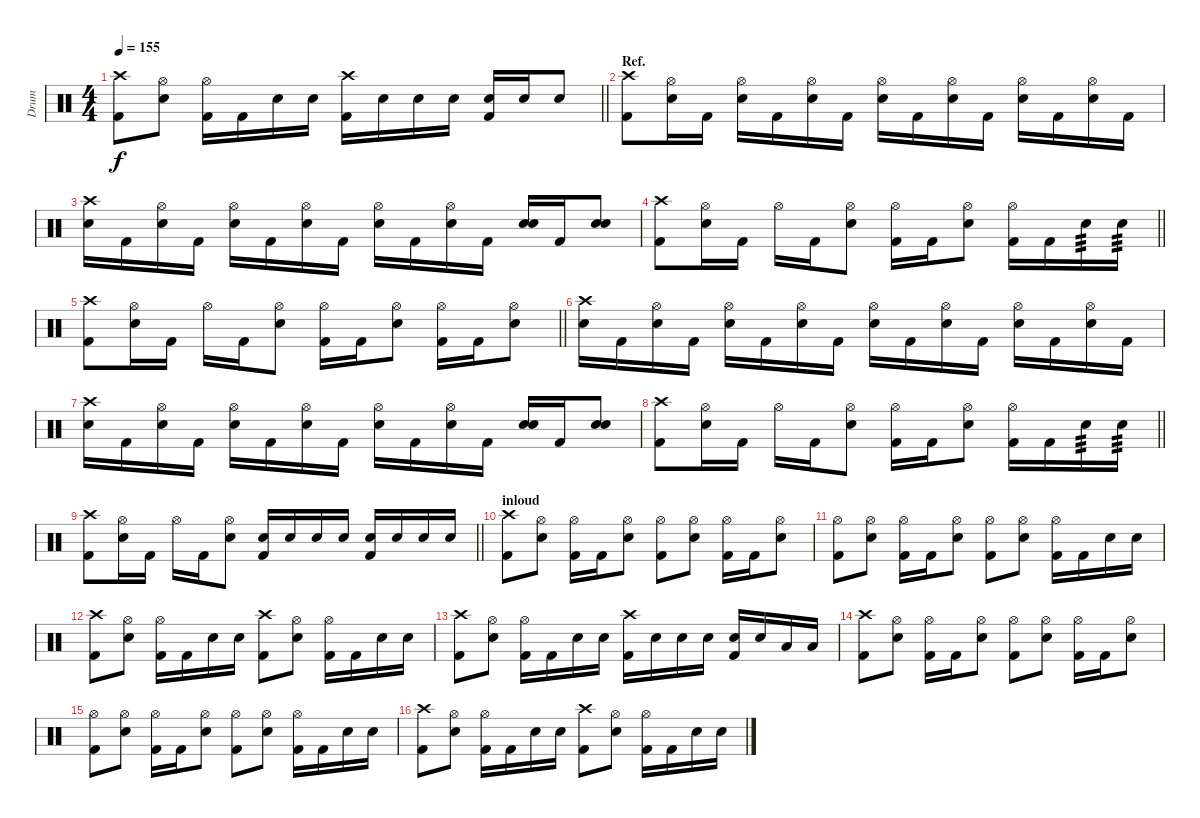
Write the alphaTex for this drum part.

\track ("Drum" "Drum") {solo instrument percussion}
\staff {score}
\articulation defaults
\ts (4 4)
\tempo 155
\clef neutral
\barLineRight lightlight
\ks c
("Crash high (hit)" "Kick (hit) 2").8{dy f} ("Hi-Hat (open)" "Electric Snare (hit)").8 ("Kick (hit) 2" "Hi-Hat (open)").16 "Kick (hit) 2".16 "Electric Snare (hit)".16 "Electric Snare (hit)".16 ("Crash high (hit)" "Kick (hit) 2").16 "Electric Snare (hit)".16 "Electric Snare (hit)".16 "Electric Snare (hit)".16 ("Electric Snare (hit)" "Kick (hit) 2").16 "Electric Snare (hit)".16 "Electric Snare (hit)".8 |
\section ("" "Ref.")
("Kick (hit) 2" "Crash high (hit)").8 ("Hi-Hat (open)" "Electric Snare (hit)").16 "Kick (hit) 2".16 ("Electric Snare (hit)" "Hi-Hat (open)").16 "Kick (hit) 2".16 ("Hi-Hat (open)" "Electric Snare (hit)").16 "Kick (hit) 2".16 ("Electric Snare (hit)" "Hi-Hat (open)").16 "Kick (hit) 2".16 ("Hi-Hat (open)" "Electric Snare (hit)").16 "Kick (hit) 2".16 ("Electric Snare (hit)" "Hi-Hat (open)").16 "Kick (hit) 2".16 ("Hi-Hat (open)" "Electric Snare (hit)").16 "Kick (hit) 2".16 |
("Electric Snare (hit)" "Crash high (hit)").16 "Kick (hit) 2".16 ("Hi-Hat (open)" "Electric Snare (hit)").16 "Kick (hit) 2".16 ("Electric Snare (hit)" "Hi-Hat (open)").16 "Kick (hit) 2".16 ("Hi-Hat (open)" "Electric Snare (hit)").16 "Kick (hit) 2".16 ("Electric Snare (hit)" "Hi-Hat (open)").16 "Kick (hit) 2".16 ("Hi-Hat (open)" "Electric Snare (hit)").16 "Kick (hit) 2".16 ("Electric Snare (hit)" "Electric Snare (hit)").16 "Kick (hit) 2".16 ("Electric Snare (hit)" "Electric Snare (hit)").8 |
\barLineRight lightlight
("Crash high (hit)" "Kick (hit) 2").8 ("Hi-Hat (open)" "Electric Snare (hit)").16 "Kick (hit) 2".16 "Hi-Hat (open)".16 "Kick (hit) 2".16 ("Hi-Hat (open)" "Electric Snare (hit)").8 ("Kick (hit) 2" "Hi-Hat (open)").16 "Kick (hit) 2".16 ("Hi-Hat (open)" "Electric Snare (hit)").8 ("Kick (hit) 2" "Hi-Hat (open)").16 "Kick (hit) 2".16 "Electric Snare (hit)".16{tp 3} "Electric Snare (hit)".16{tp 3} |
\barLineRight lightlight
("Crash high (hit)" "Kick (hit) 2").8 ("Hi-Hat (open)" "Electric Snare (hit)").16 "Kick (hit) 2".16 "Hi-Hat (open)".16 "Kick (hit) 2".16 ("Hi-Hat (open)" "Electric Snare (hit)").8 ("Kick (hit) 2" "Hi-Hat (open)").16 "Kick (hit) 2".16 ("Hi-Hat (open)" "Electric Snare (hit)").8 ("Kick (hit) 2" "Hi-Hat (open)").16 "Kick (hit) 2".16 ("Hi-Hat (open)" "Electric Snare (hit)").8 |
("Crash high (hit)" "Electric Snare (hit)").16 "Kick (hit) 2".16 ("Hi-Hat (open)" "Electric Snare (hit)").16 "Kick (hit) 2".16 ("Electric Snare (hit)" "Hi-Hat (open)").16 "Kick (hit) 2".16 ("Hi-Hat (open)" "Electric Snare (hit)").16 "Kick (hit) 2".16 ("Electric Snare (hit)" "Hi-Hat (open)").16 "Kick (hit) 2".16 ("Hi-Hat (open)" "Electric Snare (hit)").16 "Kick (hit) 2".16 ("Electric Snare (hit)" "Hi-Hat (open)").16 "Kick (hit) 2".16 ("Hi-Hat (open)" "Electric Snare (hit)").16 "Kick (hit) 2".16 |
("Electric Snare (hit)" "Crash high (hit)").16 "Kick (hit) 2".16 ("Hi-Hat (open)" "Electric Snare (hit)").16 "Kick (hit) 2".16 ("Electric Snare (hit)" "Hi-Hat (open)").16 "Kick (hit) 2".16 ("Hi-Hat (open)" "Electric Snare (hit)").16 "Kick (hit) 2".16 ("Electric Snare (hit)" "Hi-Hat (open)").16 "Kick (hit) 2".16 ("Hi-Hat (open)" "Electric Snare (hit)").16 "Kick (hit) 2".16 ("Electric Snare (hit)" "Electric Snare (hit)").16 "Kick (hit) 2".16 ("Electric Snare (hit)" "Electric Snare (hit)").8 |
\barLineRight lightlight
("Crash high (hit)" "Kick (hit) 2").8 ("Hi-Hat (open)" "Electric Snare (hit)").16 "Kick (hit) 2".16 "Hi-Hat (open)".16 "Kick (hit) 2".16 ("Hi-Hat (open)" "Electric Snare (hit)").8 ("Kick (hit) 2" "Hi-Hat (open)").16 "Kick (hit) 2".16 ("Hi-Hat (open)" "Electric Snare (hit)").8 ("Kick (hit) 2" "Hi-Hat (open)").16 "Kick (hit) 2".16 "Electric Snare (hit)".16{tp 3} "Electric Snare (hit)".16{tp 3} |
\barLineRight lightlight
("Crash high (hit)" "Kick (hit) 2").8 ("Hi-Hat (open)" "Electric Snare (hit)").16 "Kick (hit) 2".16 "Hi-Hat (open)".16 "Kick (hit) 2".16 ("Hi-Hat (open)" "Electric Snare (hit)").8 ("Electric Snare (hit)" "Kick (hit) 2").16 "Electric Snare (hit)".16 "Electric Snare (hit)".16 "Electric Snare (hit)".16 ("Electric Snare (hit)" "Kick (hit) 2").16 "Electric Snare (hit)".16 "Electric Snare (hit)".16 "Electric Snare (hit)".16 |
\section ("" "inloud")
("Crash high (hit)" "Kick (hit) 2").8 ("Hi-Hat (open)" "Electric Snare (hit)").8 ("Hi-Hat (open)" "Kick (hit) 2").16 "Kick (hit) 2".16 ("Hi-Hat (open)" "Electric Snare (hit)").8 ("Hi-Hat (open)" "Kick (hit) 2").8 ("Hi-Hat (open)" "Electric Snare (hit)").8 ("Kick (hit) 2" "Hi-Hat (open)").16 "Kick (hit) 2".16 ("Hi-Hat (open)" "Electric Snare (hit)").8 |
("Hi-Hat (open)" "Kick (hit) 2").8 ("Hi-Hat (open)" "Electric Snare (hit)").8 ("Hi-Hat (open)" "Kick (hit) 2").16 "Kick (hit) 2".16 ("Hi-Hat (open)" "Electric Snare (hit)").8 ("Hi-Hat (open)" "Kick (hit) 2").8 ("Hi-Hat (open)" "Electric Snare (hit)").8 ("Kick (hit) 2" "Hi-Hat (open)").16 "Kick (hit) 2".16 "Electric Snare (hit)".16 "Electric Snare (hit)".16 |
("Crash high (hit)" "Kick (hit) 2").8 ("Hi-Hat (open)" "Electric Snare (hit)").8 ("Kick (hit) 2" "Hi-Hat (open)").16 "Kick (hit) 2".16 "Electric Snare (hit)".16 "Electric Snare (hit)".16 ("Crash high (hit)" "Kick (hit) 2").8 ("Hi-Hat (open)" "Electric Snare (hit)").8 ("Kick (hit) 2" "Hi-Hat (open)").16 "Kick (hit) 2".16 "Electric Snare (hit)".16 "Electric Snare (hit)".16 |
("Crash high (hit)" "Kick (hit) 2").8 ("Hi-Hat (open)" "Electric Snare (hit)").8 ("Kick (hit) 2" "Hi-Hat (open)").16 "Kick (hit) 2".16 "Electric Snare (hit)".16 "Electric Snare (hit)".16 ("Crash high (hit)" "Kick (hit) 2").16 "Electric Snare (hit)".16 "Electric Snare (hit)".16 "Electric Snare (hit)".16 ("Electric Snare (hit)" "Kick (hit) 2").16 "Electric Snare (hit)".16 "Low Tom (hit)".16 "Low Tom (hit)".16 |
("Crash high (hit)" "Kick (hit) 2").8 ("Hi-Hat (open)" "Electric Snare (hit)").8 ("Hi-Hat (open)" "Kick (hit) 2").16 "Kick (hit) 2".16 ("Hi-Hat (open)" "Electric Snare (hit)").8 ("Hi-Hat (open)" "Kick (hit) 2").8 ("Hi-Hat (open)" "Electric Snare (hit)").8 ("Kick (hit) 2" "Hi-Hat (open)").16 "Kick (hit) 2".16 ("Hi-Hat (open)" "Electric Snare (hit)").8 |
("Hi-Hat (open)" "Kick (hit) 2").8 ("Hi-Hat (open)" "Electric Snare (hit)").8 ("Hi-Hat (open)" "Kick (hit) 2").16 "Kick (hit) 2".16 ("Hi-Hat (open)" "Electric Snare (hit)").8 ("Hi-Hat (open)" "Kick (hit) 2").8 ("Hi-Hat (open)" "Electric Snare (hit)").8 ("Kick (hit) 2" "Hi-Hat (open)").16 "Kick (hit) 2".16 "Electric Snare (hit)".16 "Electric Snare (hit)".16 |
("Crash high (hit)" "Kick (hit) 2").8 ("Hi-Hat (open)" "Electric Snare (hit)").8 ("Kick (hit) 2" "Hi-Hat (open)").16 "Kick (hit) 2".16 "Electric Snare (hit)".16 "Electric Snare (hit)".16 ("Crash high (hit)" "Kick (hit) 2").8 ("Hi-Hat (open)" "Electric Snare (hit)").8 ("Kick (hit) 2" "Hi-Hat (open)").16 "Kick (hit) 2".16 "Electric Snare (hit)".16 "Electric Snare (hit)".16
